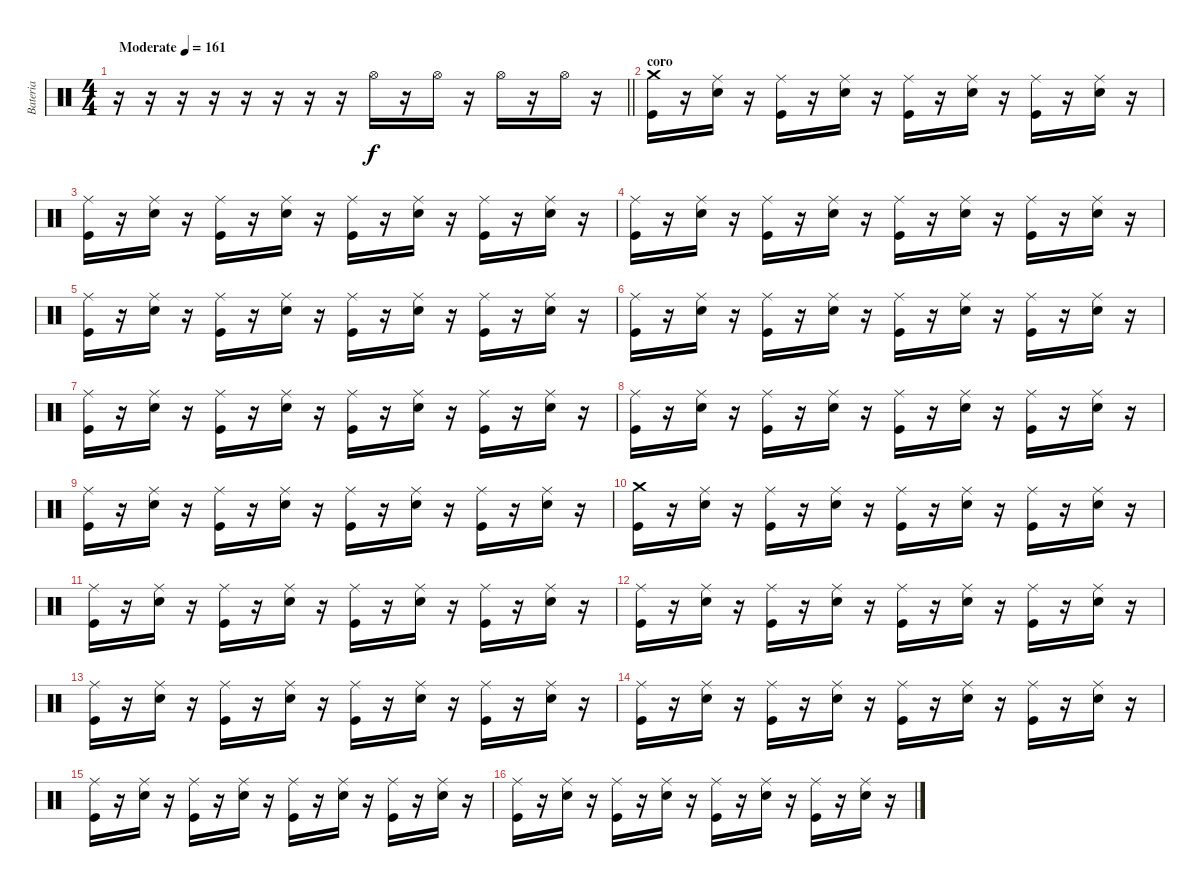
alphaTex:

\track ("Bateria" "Bateria") {instrument percussion}
\staff {score}
\articulation defaults
\ts (4 4)
\tempo (161 "Moderate")
\clef neutral
\barLineRight lightlight
\ks c
r.16{dy f} r.16 r.16 r.16 r.16 r.16 r.16 r.16 "Hi-Hat (open)".16 r.16 "Hi-Hat (open)".16 r.16 "Hi-Hat (open)".16 r.16 "Hi-Hat (open)".16 r.16 |
\section ("" "coro")
("Crash medium (hit)" "Kick (hit)").16 r.16 ("Ride (middle)" "Snare (hit) 2").16 r.16 ("Ride (middle)" "Kick (hit)").16 r.16 ("Ride (middle)" "Snare (hit) 2").16 r.16 ("Ride (middle)" "Kick (hit)").16 r.16 ("Ride (middle)" "Snare (hit) 2").16 r.16 ("Ride (middle)" "Kick (hit)").16 r.16 ("Ride (middle)" "Snare (hit) 2").16 r.16 |
("Ride (middle)" "Kick (hit)").16 r.16 ("Ride (middle)" "Snare (hit) 2").16 r.16 ("Ride (middle)" "Kick (hit)").16 r.16 ("Ride (middle)" "Snare (hit) 2").16 r.16 ("Ride (middle)" "Kick (hit)").16 r.16 ("Ride (middle)" "Snare (hit) 2").16 r.16 ("Ride (middle)" "Kick (hit)").16 r.16 ("Ride (middle)" "Snare (hit) 2").16 r.16 |
("Ride (middle)" "Kick (hit)").16 r.16 ("Ride (middle)" "Snare (hit) 2").16 r.16 ("Ride (middle)" "Kick (hit)").16 r.16 ("Ride (middle)" "Snare (hit) 2").16 r.16 ("Ride (middle)" "Kick (hit)").16 r.16 ("Ride (middle)" "Snare (hit) 2").16 r.16 ("Ride (middle)" "Kick (hit)").16 r.16 ("Ride (middle)" "Snare (hit) 2").16 r.16 |
("Ride (middle)" "Kick (hit)").16 r.16 ("Ride (middle)" "Snare (hit) 2").16 r.16 ("Ride (middle)" "Kick (hit)").16 r.16 ("Ride (middle)" "Snare (hit) 2").16 r.16 ("Ride (middle)" "Kick (hit)").16 r.16 ("Ride (middle)" "Snare (hit) 2").16 r.16 ("Ride (middle)" "Kick (hit)").16 r.16 ("Ride (middle)" "Snare (hit) 2").16 r.16 |
("Ride (middle)" "Kick (hit)").16 r.16 ("Ride (middle)" "Snare (hit) 2").16 r.16 ("Ride (middle)" "Kick (hit)").16 r.16 ("Ride (middle)" "Snare (hit) 2").16 r.16 ("Ride (middle)" "Kick (hit)").16 r.16 ("Ride (middle)" "Snare (hit) 2").16 r.16 ("Ride (middle)" "Kick (hit)").16 r.16 ("Ride (middle)" "Snare (hit) 2").16 r.16 |
("Ride (middle)" "Kick (hit)").16 r.16 ("Ride (middle)" "Snare (hit) 2").16 r.16 ("Ride (middle)" "Kick (hit)").16 r.16 ("Ride (middle)" "Snare (hit) 2").16 r.16 ("Ride (middle)" "Kick (hit)").16 r.16 ("Ride (middle)" "Snare (hit) 2").16 r.16 ("Ride (middle)" "Kick (hit)").16 r.16 ("Ride (middle)" "Snare (hit) 2").16 r.16 |
("Ride (middle)" "Kick (hit)").16 r.16 ("Ride (middle)" "Snare (hit) 2").16 r.16 ("Ride (middle)" "Kick (hit)").16 r.16 ("Ride (middle)" "Snare (hit) 2").16 r.16 ("Ride (middle)" "Kick (hit)").16 r.16 ("Ride (middle)" "Snare (hit) 2").16 r.16 ("Ride (middle)" "Kick (hit)").16 r.16 ("Ride (middle)" "Snare (hit) 2").16 r.16 |
("Ride (middle)" "Kick (hit)").16 r.16 ("Ride (middle)" "Snare (hit) 2").16 r.16 ("Ride (middle)" "Kick (hit)").16 r.16 ("Ride (middle)" "Snare (hit) 2").16 r.16 ("Ride (middle)" "Kick (hit)").16 r.16 ("Ride (middle)" "Snare (hit) 2").16 r.16 ("Ride (middle)" "Kick (hit)").16 r.16 ("Ride (middle)" "Snare (hit) 2").16 r.16 |
("Crash medium (hit)" "Kick (hit)").16 r.16 ("Ride (middle)" "Snare (hit) 2").16 r.16 ("Ride (middle)" "Kick (hit)").16 r.16 ("Ride (middle)" "Snare (hit) 2").16 r.16 ("Ride (middle)" "Kick (hit)").16 r.16 ("Ride (middle)" "Snare (hit) 2").16 r.16 ("Ride (middle)" "Kick (hit)").16 r.16 ("Ride (middle)" "Snare (hit) 2").16 r.16 |
("Ride (middle)" "Kick (hit)").16 r.16 ("Ride (middle)" "Snare (hit) 2").16 r.16 ("Ride (middle)" "Kick (hit)").16 r.16 ("Ride (middle)" "Snare (hit) 2").16 r.16 ("Ride (middle)" "Kick (hit)").16 r.16 ("Ride (middle)" "Snare (hit) 2").16 r.16 ("Ride (middle)" "Kick (hit)").16 r.16 ("Ride (middle)" "Snare (hit) 2").16 r.16 |
("Ride (middle)" "Kick (hit)").16 r.16 ("Ride (middle)" "Snare (hit) 2").16 r.16 ("Ride (middle)" "Kick (hit)").16 r.16 ("Ride (middle)" "Snare (hit) 2").16 r.16 ("Ride (middle)" "Kick (hit)").16 r.16 ("Ride (middle)" "Snare (hit) 2").16 r.16 ("Ride (middle)" "Kick (hit)").16 r.16 ("Ride (middle)" "Snare (hit) 2").16 r.16 |
("Ride (middle)" "Kick (hit)").16 r.16 ("Ride (middle)" "Snare (hit) 2").16 r.16 ("Ride (middle)" "Kick (hit)").16 r.16 ("Ride (middle)" "Snare (hit) 2").16 r.16 ("Ride (middle)" "Kick (hit)").16 r.16 ("Ride (middle)" "Snare (hit) 2").16 r.16 ("Ride (middle)" "Kick (hit)").16 r.16 ("Ride (middle)" "Snare (hit) 2").16 r.16 |
("Ride (middle)" "Kick (hit)").16 r.16 ("Ride (middle)" "Snare (hit) 2").16 r.16 ("Ride (middle)" "Kick (hit)").16 r.16 ("Ride (middle)" "Snare (hit) 2").16 r.16 ("Ride (middle)" "Kick (hit)").16 r.16 ("Ride (middle)" "Snare (hit) 2").16 r.16 ("Ride (middle)" "Kick (hit)").16 r.16 ("Ride (middle)" "Snare (hit) 2").16 r.16 |
("Ride (middle)" "Kick (hit)").16 r.16 ("Ride (middle)" "Snare (hit) 2").16 r.16 ("Ride (middle)" "Kick (hit)").16 r.16 ("Ride (middle)" "Snare (hit) 2").16 r.16 ("Ride (middle)" "Kick (hit)").16 r.16 ("Ride (middle)" "Snare (hit) 2").16 r.16 ("Ride (middle)" "Kick (hit)").16 r.16 ("Ride (middle)" "Snare (hit) 2").16 r.16 |
("Ride (middle)" "Kick (hit)").16 r.16 ("Ride (middle)" "Snare (hit) 2").16 r.16 ("Ride (middle)" "Kick (hit)").16 r.16 ("Ride (middle)" "Snare (hit) 2").16 r.16 ("Ride (middle)" "Kick (hit)").16 r.16 ("Ride (middle)" "Snare (hit) 2").16 r.16 ("Ride (middle)" "Kick (hit)").16 r.16 ("Ride (middle)" "Snare (hit) 2").16 r.16
